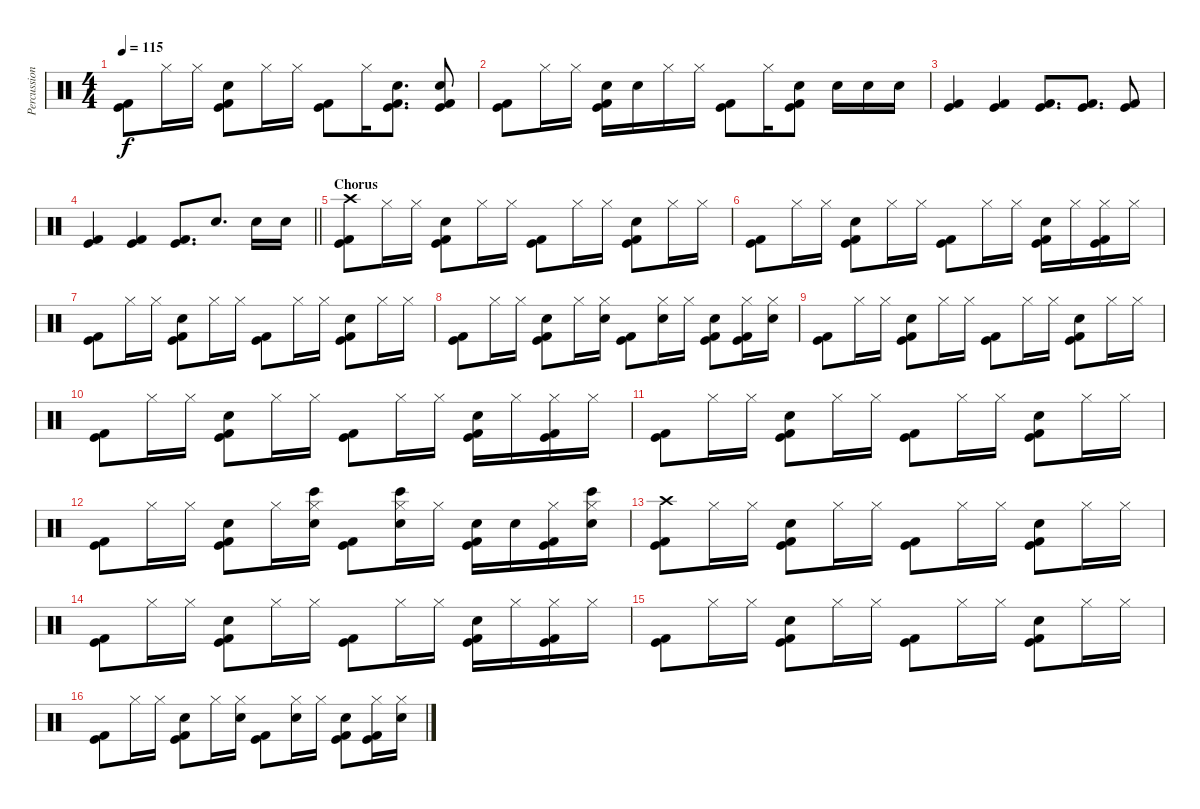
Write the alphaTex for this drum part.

\track ("Percussion" "Percussion") {instrument percussion}
\staff {score}
\articulation defaults
\ts (4 4)
\tempo 115
\clef neutral
\ks c
("Kick (hit)" "Kick (hit) 2").8{dy f} "Hi-Hat (closed)".16 "Hi-Hat (closed)".16 ("Electric Snare (hit)" "Kick (hit)" "Kick (hit) 2").8 "Hi-Hat (closed)".16 "Hi-Hat (closed)".16 ("Kick (hit)" "Kick (hit) 2").8 "Hi-Hat (closed)".16 ("Electric Snare (hit)" "Kick (hit)" "Kick (hit) 2").8{d} ("Electric Snare (hit)" "Kick (hit)" "Kick (hit) 2").8 |
("Kick (hit)" "Kick (hit) 2").8 "Hi-Hat (closed)".16 "Hi-Hat (closed)".16 ("Electric Snare (hit)" "Kick (hit)" "Kick (hit) 2").16 "Electric Snare (hit)".16 "Hi-Hat (closed)".16 "Hi-Hat (closed)".16 ("Kick (hit)" "Kick (hit) 2").8 "Hi-Hat (closed)".16 ("Electric Snare (hit)" "Kick (hit)" "Kick (hit) 2").8 "Electric Snare (hit)".16 "Electric Snare (hit)".16 "Electric Snare (hit)".16 |
("Kick (hit)" "Kick (hit) 2").4 ("Kick (hit)" "Kick (hit) 2").4 ("Kick (hit)" "Kick (hit) 2").8{d} ("Kick (hit)" "Kick (hit) 2").8{d} ("Kick (hit)" "Kick (hit) 2").8 |
\barLineRight lightlight
("Kick (hit)" "Kick (hit) 2").4 ("Kick (hit)" "Kick (hit) 2").4 ("Kick (hit)" "Kick (hit) 2").8{d} "Electric Snare (hit)".8{d} "Electric Snare (hit)".16 "Electric Snare (hit)".16 |
\section ("" "Chorus")
("Crash high (hit)" "Kick (hit)" "Kick (hit) 2").8 "Hi-Hat (closed)".16 "Hi-Hat (closed)".16 ("Electric Snare (hit)" "Kick (hit)" "Kick (hit) 2").8 "Hi-Hat (closed)".16 "Hi-Hat (closed)".16 ("Kick (hit)" "Kick (hit) 2").8 "Hi-Hat (closed)".16 "Hi-Hat (closed)".16 ("Electric Snare (hit)" "Kick (hit)" "Kick (hit) 2").8 "Hi-Hat (closed)".16 "Hi-Hat (closed)".16 |
("Kick (hit)" "Kick (hit) 2").8 "Hi-Hat (closed)".16 "Hi-Hat (closed)".16 ("Electric Snare (hit)" "Kick (hit)" "Kick (hit) 2").8 "Hi-Hat (closed)".16 "Hi-Hat (closed)".16 ("Kick (hit)" "Kick (hit) 2").8 "Hi-Hat (closed)".16 "Hi-Hat (closed)".16 ("Electric Snare (hit)" "Kick (hit)" "Kick (hit) 2").16 "Hi-Hat (closed)".16 ("Hi-Hat (closed)" "Kick (hit)" "Kick (hit) 2").16 "Hi-Hat (closed)".16 |
("Kick (hit)" "Kick (hit) 2").8 "Hi-Hat (closed)".16 "Hi-Hat (closed)".16 ("Electric Snare (hit)" "Kick (hit)" "Kick (hit) 2").8 "Hi-Hat (closed)".16 "Hi-Hat (closed)".16 ("Kick (hit)" "Kick (hit) 2").8 "Hi-Hat (closed)".16 "Hi-Hat (closed)".16 ("Electric Snare (hit)" "Kick (hit)" "Kick (hit) 2").8 "Hi-Hat (closed)".16 "Hi-Hat (closed)".16 |
("Kick (hit)" "Kick (hit) 2").8 "Hi-Hat (closed)".16 "Hi-Hat (closed)".16 ("Electric Snare (hit)" "Kick (hit)" "Kick (hit) 2").8 "Hi-Hat (closed)".16 ("Hi-Hat (closed)" "Electric Snare (hit)").16 ("Kick (hit)" "Kick (hit) 2").8 ("Hi-Hat (closed)" "Electric Snare (hit)").16 "Hi-Hat (closed)".16 ("Electric Snare (hit)" "Kick (hit)" "Kick (hit) 2").8 ("Hi-Hat (closed)" "Kick (hit)" "Kick (hit) 2").16 ("Hi-Hat (closed)" "Electric Snare (hit)").16 |
("Kick (hit)" "Kick (hit) 2").8 "Hi-Hat (closed)".16 "Hi-Hat (closed)".16 ("Electric Snare (hit)" "Kick (hit)" "Kick (hit) 2").8 "Hi-Hat (closed)".16 "Hi-Hat (closed)".16 ("Kick (hit)" "Kick (hit) 2").8 "Hi-Hat (closed)".16 "Hi-Hat (closed)".16 ("Electric Snare (hit)" "Kick (hit)" "Kick (hit) 2").8 "Hi-Hat (closed)".16 "Hi-Hat (closed)".16 |
("Kick (hit)" "Kick (hit) 2").8 "Hi-Hat (closed)".16 "Hi-Hat (closed)".16 ("Electric Snare (hit)" "Kick (hit)" "Kick (hit) 2").8 "Hi-Hat (closed)".16 "Hi-Hat (closed)".16 ("Kick (hit)" "Kick (hit) 2").8 "Hi-Hat (closed)".16 "Hi-Hat (closed)".16 ("Electric Snare (hit)" "Kick (hit)" "Kick (hit) 2").16 "Hi-Hat (closed)".16 ("Hi-Hat (closed)" "Kick (hit)" "Kick (hit) 2").16 "Hi-Hat (closed)".16 |
("Kick (hit)" "Kick (hit) 2").8 "Hi-Hat (closed)".16 "Hi-Hat (closed)".16 ("Electric Snare (hit)" "Kick (hit)" "Kick (hit) 2").8 "Hi-Hat (closed)".16 "Hi-Hat (closed)".16 ("Kick (hit)" "Kick (hit) 2").8 "Hi-Hat (closed)".16 "Hi-Hat (closed)".16 ("Electric Snare (hit)" "Kick (hit)" "Kick (hit) 2").8 "Hi-Hat (closed)".16 "Hi-Hat (closed)".16 |
("Kick (hit)" "Kick (hit) 2").8 "Hi-Hat (closed)".16 "Hi-Hat (closed)".16 ("Electric Snare (hit)" "Kick (hit)" "Kick (hit) 2").8 "Hi-Hat (closed)".16 ("Hi-Hat (closed)" "Bongo High (hit)" "Electric Snare (hit)").16 ("Kick (hit)" "Kick (hit) 2").8 ("Hi-Hat (closed)" "Bongo High (hit)" "Electric Snare (hit)").16 "Hi-Hat (closed)".16 ("Electric Snare (hit)" "Kick (hit)" "Kick (hit) 2").16 "Electric Snare (hit)".16 ("Hi-Hat (closed)" "Kick (hit)" "Kick (hit) 2").16 ("Hi-Hat (closed)" "Bongo High (hit)" "Electric Snare (hit)").16 |
("Crash high (hit)" "Kick (hit)" "Kick (hit) 2").8 "Hi-Hat (closed)".16 "Hi-Hat (closed)".16 ("Electric Snare (hit)" "Kick (hit)" "Kick (hit) 2").8 "Hi-Hat (closed)".16 "Hi-Hat (closed)".16 ("Kick (hit)" "Kick (hit) 2").8 "Hi-Hat (closed)".16 "Hi-Hat (closed)".16 ("Electric Snare (hit)" "Kick (hit)" "Kick (hit) 2").8 "Hi-Hat (closed)".16 "Hi-Hat (closed)".16 |
("Kick (hit)" "Kick (hit) 2").8 "Hi-Hat (closed)".16 "Hi-Hat (closed)".16 ("Electric Snare (hit)" "Kick (hit)" "Kick (hit) 2").8 "Hi-Hat (closed)".16 "Hi-Hat (closed)".16 ("Kick (hit)" "Kick (hit) 2").8 "Hi-Hat (closed)".16 "Hi-Hat (closed)".16 ("Electric Snare (hit)" "Kick (hit)" "Kick (hit) 2").16 "Hi-Hat (closed)".16 ("Hi-Hat (closed)" "Kick (hit)" "Kick (hit) 2").16 "Hi-Hat (closed)".16 |
("Kick (hit)" "Kick (hit) 2").8 "Hi-Hat (closed)".16 "Hi-Hat (closed)".16 ("Electric Snare (hit)" "Kick (hit)" "Kick (hit) 2").8 "Hi-Hat (closed)".16 "Hi-Hat (closed)".16 ("Kick (hit)" "Kick (hit) 2").8 "Hi-Hat (closed)".16 "Hi-Hat (closed)".16 ("Electric Snare (hit)" "Kick (hit)" "Kick (hit) 2").8 "Hi-Hat (closed)".16 "Hi-Hat (closed)".16 |
("Kick (hit)" "Kick (hit) 2").8 "Hi-Hat (closed)".16 "Hi-Hat (closed)".16 ("Electric Snare (hit)" "Kick (hit)" "Kick (hit) 2").8 "Hi-Hat (closed)".16 ("Hi-Hat (closed)" "Electric Snare (hit)").16 ("Kick (hit)" "Kick (hit) 2").8 ("Hi-Hat (closed)" "Electric Snare (hit)").16 "Hi-Hat (closed)".16 ("Electric Snare (hit)" "Kick (hit)" "Kick (hit) 2").8 ("Hi-Hat (closed)" "Kick (hit)" "Kick (hit) 2").16 ("Hi-Hat (closed)" "Electric Snare (hit)").16
